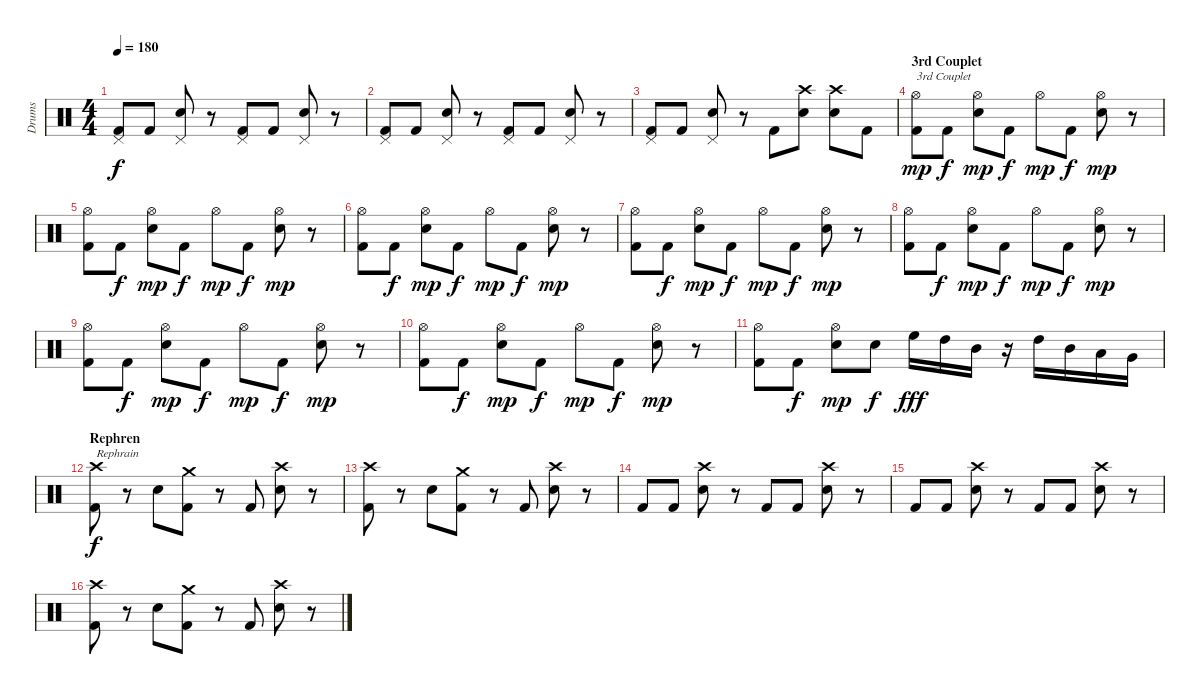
\track ("Drums" "Drums") {instrument percussion}
\staff {score}
\articulation defaults
\ts (4 4)
\tempo 180
\clef neutral
\ks c
("Pedal Hi-Hat (hit)" "Kick (hit) 2").8{dy f} "Kick (hit) 2".8 ("Pedal Hi-Hat (hit)" "Electric Snare (hit)").8 r.8 ("Pedal Hi-Hat (hit)" "Kick (hit) 2").8 "Kick (hit) 2".8 ("Pedal Hi-Hat (hit)" "Electric Snare (hit)").8 r.8 |
("Pedal Hi-Hat (hit)" "Kick (hit) 2").8 "Kick (hit) 2".8 ("Pedal Hi-Hat (hit)" "Electric Snare (hit)").8 r.8 ("Pedal Hi-Hat (hit)" "Kick (hit) 2").8 "Kick (hit) 2".8 ("Pedal Hi-Hat (hit)" "Electric Snare (hit)").8 r.8 |
("Pedal Hi-Hat (hit)" "Kick (hit) 2").8 "Kick (hit) 2".8 ("Pedal Hi-Hat (hit)" "Electric Snare (hit)").8 r.8 "Kick (hit) 2".8 ("Crash high (hit)" "Electric Snare (hit)").8 ("Crash high (hit)" "Electric Snare (hit)").8 "Kick (hit) 2".8 |
\section ("" "3rd Couplet")
("Hi-Hat (open)" "Kick (hit) 2").8{txt "3rd Couplet " dy mp} "Kick (hit) 2".8{dy f} ("Hi-Hat (open)" "Electric Snare (hit)").8{dy mp} "Kick (hit) 2".8{dy f} "Hi-Hat (open)".8{dy mp} "Kick (hit) 2".8{dy f} ("Hi-Hat (open)" "Electric Snare (hit)").8{dy mp} r.8 |
("Hi-Hat (open)" "Kick (hit) 2").8 "Kick (hit) 2".8{dy f} ("Hi-Hat (open)" "Electric Snare (hit)").8{dy mp} "Kick (hit) 2".8{dy f} "Hi-Hat (open)".8{dy mp} "Kick (hit) 2".8{dy f} ("Hi-Hat (open)" "Electric Snare (hit)").8{dy mp} r.8 |
("Hi-Hat (open)" "Kick (hit) 2").8 "Kick (hit) 2".8{dy f} ("Hi-Hat (open)" "Electric Snare (hit)").8{dy mp} "Kick (hit) 2".8{dy f} "Hi-Hat (open)".8{dy mp} "Kick (hit) 2".8{dy f} ("Hi-Hat (open)" "Electric Snare (hit)").8{dy mp} r.8 |
("Hi-Hat (open)" "Kick (hit) 2").8 "Kick (hit) 2".8{dy f} ("Hi-Hat (open)" "Electric Snare (hit)").8{dy mp} "Kick (hit) 2".8{dy f} "Hi-Hat (open)".8{dy mp} "Kick (hit) 2".8{dy f} ("Hi-Hat (open)" "Electric Snare (hit)").8{dy mp} r.8 |
("Hi-Hat (open)" "Kick (hit) 2").8 "Kick (hit) 2".8{dy f} ("Hi-Hat (open)" "Electric Snare (hit)").8{dy mp} "Kick (hit) 2".8{dy f} "Hi-Hat (open)".8{dy mp} "Kick (hit) 2".8{dy f} ("Hi-Hat (open)" "Electric Snare (hit)").8{dy mp} r.8 |
("Hi-Hat (open)" "Kick (hit) 2").8 "Kick (hit) 2".8{dy f} ("Hi-Hat (open)" "Electric Snare (hit)").8{dy mp} "Kick (hit) 2".8{dy f} "Hi-Hat (open)".8{dy mp} "Kick (hit) 2".8{dy f} ("Hi-Hat (open)" "Electric Snare (hit)").8{dy mp} r.8 |
("Hi-Hat (open)" "Kick (hit) 2").8 "Kick (hit) 2".8{dy f} ("Hi-Hat (open)" "Electric Snare (hit)").8{dy mp} "Kick (hit) 2".8{dy f} "Hi-Hat (open)".8{dy mp} "Kick (hit) 2".8{dy f} ("Hi-Hat (open)" "Electric Snare (hit)").8{dy mp} r.8 |
("Hi-Hat (open)" "Kick (hit) 2").8 "Kick (hit) 2".8{dy f} ("Hi-Hat (open)" "Electric Snare (hit)").8{dy mp} "Snare (hit) 2".8{dy f} "High Floor Tom (hit)".16{dy fff} "High Tom (hit)".16 "Mid Tom (hit)".16 r.16 "High Tom (hit)".16 "Mid Tom (hit)".16 "Low Tom (hit)".16 "Very Low Tom (hit)".16 |
\section ("" "Rephren")
("Crash high (hit)" "Kick (hit) 2").8{txt "Rephrain" dy f} r.8 "Electric Snare (hit)".8 ("Crash medium (hit)" "Kick (hit) 2").8 r.8 "Kick (hit) 2".8 ("Crash high (hit)" "Electric Snare (hit)").8 r.8 |
("Crash high (hit)" "Kick (hit) 2").8 r.8 "Electric Snare (hit)".8 ("Crash medium (hit)" "Kick (hit) 2").8 r.8 "Kick (hit) 2".8 ("Crash high (hit)" "Electric Snare (hit)").8 r.8 |
"Kick (hit) 2".8 "Kick (hit) 2".8 ("Crash high (hit)" "Electric Snare (hit)").8 r.8 "Kick (hit) 2".8 "Kick (hit) 2".8 ("Crash high (hit)" "Electric Snare (hit)").8 r.8 |
"Kick (hit) 2".8 "Kick (hit) 2".8 ("Crash high (hit)" "Electric Snare (hit)").8 r.8 "Kick (hit) 2".8 "Kick (hit) 2".8 ("Crash high (hit)" "Electric Snare (hit)").8 r.8 |
("Crash high (hit)" "Kick (hit) 2").8 r.8 "Electric Snare (hit)".8 ("Crash medium (hit)" "Kick (hit) 2").8 r.8 "Kick (hit) 2".8 ("Crash high (hit)" "Electric Snare (hit)").8 r.8
